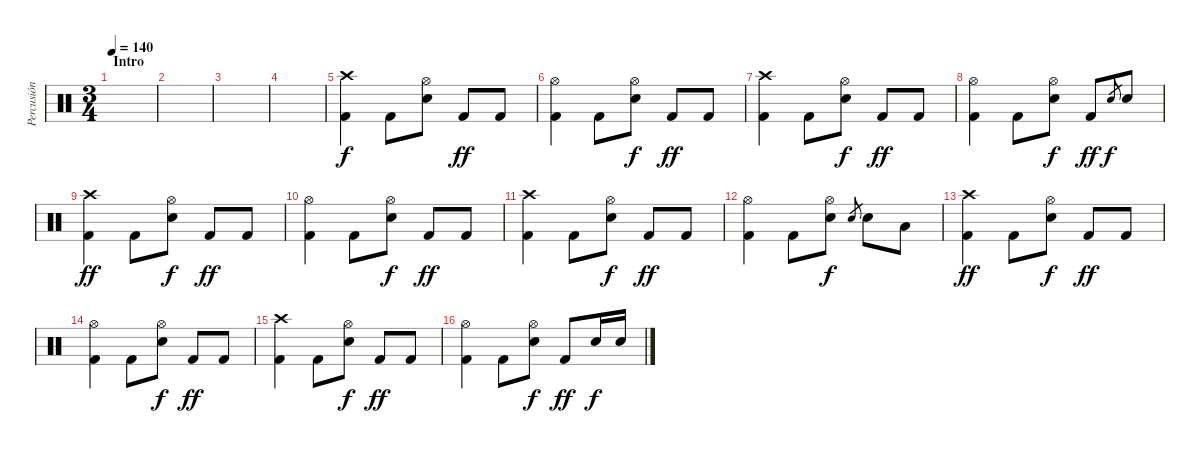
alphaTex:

\track ("Percusión" "Percusión") {instrument percussion}
\staff {score}
\articulation defaults
\ts (3 4)
\section ("" "Intro")
\tempo 140
\clef neutral
\ks c
|
|
|
|
("Crash high (hit)" "Kick (hit) 2").4 "Kick (hit) 2".8 ("Hi-Hat (open)" "Electric Snare (hit)").8{dy f} "Kick (hit) 2".8{dy ff} "Kick (hit) 2".8 |
("Hi-Hat (open)" "Kick (hit) 2").4 "Kick (hit) 2".8 ("Hi-Hat (open)" "Electric Snare (hit)").8{dy f} "Kick (hit) 2".8{dy ff} "Kick (hit) 2".8 |
("Crash high (hit)" "Kick (hit) 2").4 "Kick (hit) 2".8 ("Hi-Hat (open)" "Electric Snare (hit)").8{dy f} "Kick (hit) 2".8{dy ff} "Kick (hit) 2".8 |
("Hi-Hat (open)" "Kick (hit) 2").4 "Kick (hit) 2".8 ("Hi-Hat (open)" "Electric Snare (hit)").8{dy f} "Kick (hit) 2".8{dy ff} "Electric Snare (hit)".8{gr dy f} "Electric Snare (hit)".8 |
("Crash high (hit)" "Kick (hit) 2").4{dy ff} "Kick (hit) 2".8 ("Hi-Hat (open)" "Electric Snare (hit)").8{dy f} "Kick (hit) 2".8{dy ff} "Kick (hit) 2".8 |
("Hi-Hat (open)" "Kick (hit) 2").4 "Kick (hit) 2".8 ("Hi-Hat (open)" "Electric Snare (hit)").8{dy f} "Kick (hit) 2".8{dy ff} "Kick (hit) 2".8 |
("Crash high (hit)" "Kick (hit) 2").4 "Kick (hit) 2".8 ("Hi-Hat (open)" "Electric Snare (hit)").8{dy f} "Kick (hit) 2".8{dy ff} "Kick (hit) 2".8 |
("Hi-Hat (open)" "Kick (hit) 2").4 "Kick (hit) 2".8 ("Hi-Hat (open)" "Electric Snare (hit)").8{dy f} "Electric Snare (hit)".8{gr} "Electric Snare (hit)".8 "Low Tom (hit)".8 |
("Crash high (hit)" "Kick (hit) 2").4{dy ff} "Kick (hit) 2".8 ("Hi-Hat (open)" "Electric Snare (hit)").8{dy f} "Kick (hit) 2".8{dy ff} "Kick (hit) 2".8 |
("Hi-Hat (open)" "Kick (hit) 2").4 "Kick (hit) 2".8 ("Hi-Hat (open)" "Electric Snare (hit)").8{dy f} "Kick (hit) 2".8{dy ff} "Kick (hit) 2".8 |
("Crash high (hit)" "Kick (hit) 2").4 "Kick (hit) 2".8 ("Hi-Hat (open)" "Electric Snare (hit)").8{dy f} "Kick (hit) 2".8{dy ff} "Kick (hit) 2".8 |
("Hi-Hat (open)" "Kick (hit) 2").4 "Kick (hit) 2".8 ("Hi-Hat (open)" "Electric Snare (hit)").8{dy f} "Kick (hit) 2".8{dy ff} "Electric Snare (hit)".16{dy f} "Electric Snare (hit)".16
